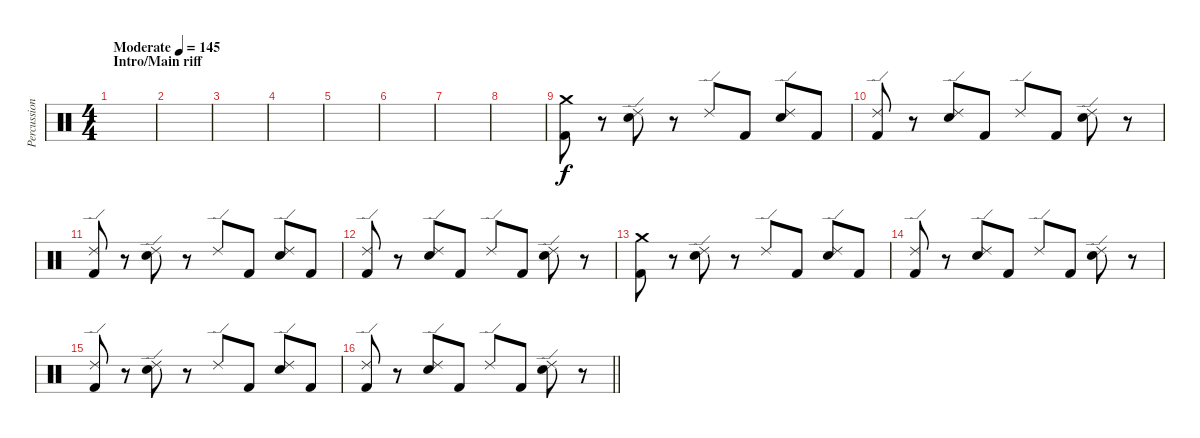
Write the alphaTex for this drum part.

\track ("Percussion" "Percussion") {instrument percussion}
\staff {score}
\articulation defaults
\ts (4 4)
\section ("" "Intro/Main riff")
\tempo (145 "Moderate")
\clef neutral
\ks c
|
|
|
|
|
|
|
|
("Crash medium (hit)" "Kick (hit) 2").8 r.8 ("Ride (edge) 2" "Electric Snare (hit)").8 r.8 "Ride (edge) 2".8 "Kick (hit) 2".8 ("Ride (edge) 2" "Electric Snare (hit)").8 "Kick (hit) 2".8 |
("Ride (edge) 2" "Kick (hit) 2").8 r.8 ("Ride (edge) 2" "Electric Snare (hit)").8 "Kick (hit) 2".8 "Ride (edge) 2".8 "Kick (hit) 2".8 ("Ride (edge) 2" "Electric Snare (hit)").8 r.8 |
("Ride (edge) 2" "Kick (hit) 2").8 r.8 ("Ride (edge) 2" "Electric Snare (hit)").8 r.8 "Ride (edge) 2".8 "Kick (hit) 2".8 ("Ride (edge) 2" "Electric Snare (hit)").8 "Kick (hit) 2".8 |
("Ride (edge) 2" "Kick (hit) 2").8 r.8 ("Ride (edge) 2" "Electric Snare (hit)").8 "Kick (hit) 2".8 "Ride (edge) 2".8 "Kick (hit) 2".8 ("Ride (edge) 2" "Electric Snare (hit)").8 r.8 |
("Crash medium (hit)" "Kick (hit) 2").8 r.8 ("Ride (edge) 2" "Electric Snare (hit)").8 r.8 "Ride (edge) 2".8 "Kick (hit) 2".8 ("Ride (edge) 2" "Electric Snare (hit)").8 "Kick (hit) 2".8 |
("Ride (edge) 2" "Kick (hit) 2").8 r.8 ("Ride (edge) 2" "Electric Snare (hit)").8 "Kick (hit) 2".8 "Ride (edge) 2".8 "Kick (hit) 2".8 ("Ride (edge) 2" "Electric Snare (hit)").8 r.8 |
("Ride (edge) 2" "Kick (hit) 2").8 r.8 ("Ride (edge) 2" "Electric Snare (hit)").8 r.8 "Ride (edge) 2".8 "Kick (hit) 2".8 ("Ride (edge) 2" "Electric Snare (hit)").8 "Kick (hit) 2".8 |
\barLineRight lightlight
("Ride (edge) 2" "Kick (hit) 2").8 r.8 ("Ride (edge) 2" "Electric Snare (hit)").8 "Kick (hit) 2".8 "Ride (edge) 2".8 "Kick (hit) 2".8 ("Ride (edge) 2" "Electric Snare (hit)").8 r.8
